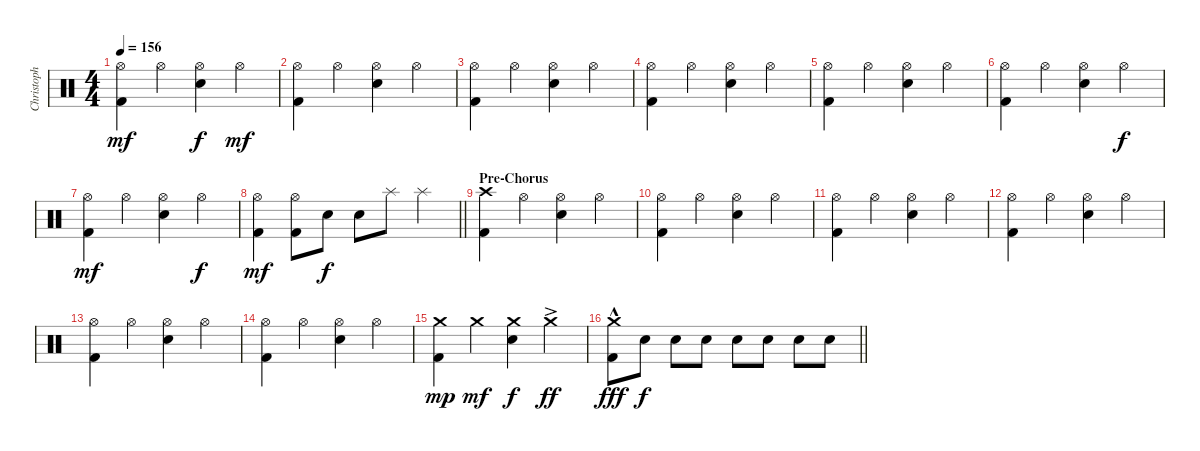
\track ("Christoph Schneider" "Christoph ") {instrument percussion}
\staff {score}
\articulation defaults
\ts (4 4)
\tempo 156
\clef neutral
\ks c
("Hi-Hat (open)" "Kick (hit) 2").4{dy mf} "Hi-Hat (open)".4 ("Hi-Hat (open)" "Snare (hit) 2").4{dy f} "Hi-Hat (open)".4{dy mf} |
("Hi-Hat (open)" "Kick (hit) 2").4 "Hi-Hat (open)".4 ("Hi-Hat (open)" "Snare (hit) 2").4 "Hi-Hat (open)".4 |
("Hi-Hat (open)" "Kick (hit) 2").4 "Hi-Hat (open)".4 ("Hi-Hat (open)" "Snare (hit) 2").4 "Hi-Hat (open)".4 |
("Hi-Hat (open)" "Kick (hit) 2").4 "Hi-Hat (open)".4 ("Hi-Hat (open)" "Snare (hit) 2").4 "Hi-Hat (open)".4 |
("Hi-Hat (open)" "Kick (hit) 2").4 "Hi-Hat (open)".4 ("Hi-Hat (open)" "Snare (hit) 2").4 "Hi-Hat (open)".4 |
("Hi-Hat (open)" "Kick (hit) 2").4 "Hi-Hat (open)".4 ("Hi-Hat (open)" "Snare (hit) 2").4 "Hi-Hat (open)".4{dy f} |
("Hi-Hat (open)" "Kick (hit) 2").4{dy mf} "Hi-Hat (open)".4 ("Hi-Hat (open)" "Snare (hit) 2").4 "Hi-Hat (open)".4{dy f} |
\barLineRight lightlight
("Hi-Hat (open)" "Kick (hit) 2").4{dy mf} ("Hi-Hat (open)" "Kick (hit) 2").8 "Snare (hit) 2".8{dy f} "Snare (hit) 2".8 "Splash (hit)".8 "Splash (hit)".4 |
\section ("" "Pre-Chorus")
("Crash high (hit)" "Kick (hit) 2").4 "Hi-Hat (open)".4 ("Hi-Hat (open)" "Snare (hit) 2").4 "Hi-Hat (open)".4 |
("Hi-Hat (open)" "Kick (hit) 2").4 "Hi-Hat (open)".4 ("Hi-Hat (open)" "Snare (hit) 2").4 "Hi-Hat (open)".4 |
("Hi-Hat (open)" "Kick (hit) 2").4 "Hi-Hat (open)".4 ("Hi-Hat (open)" "Snare (hit) 2").4 "Hi-Hat (open)".4 |
("Hi-Hat (open)" "Kick (hit) 2").4 "Hi-Hat (open)".4 ("Hi-Hat (open)" "Snare (hit) 2").4 "Hi-Hat (open)".4 |
("Hi-Hat (open)" "Kick (hit) 2").4 "Hi-Hat (open)".4 ("Hi-Hat (open)" "Snare (hit) 2").4 "Hi-Hat (open)".4 |
("Hi-Hat (open)" "Kick (hit) 2").4 "Hi-Hat (open)".4 ("Hi-Hat (open)" "Snare (hit) 2").4 "Hi-Hat (open)".4 |
("Crash medium (hit)" "Kick (hit) 2").4{dy mp} "Crash medium (hit)".4{dy mf} ("Crash medium (hit)" "Snare (hit) 2").4{dy f} "Crash medium (hit)"{ac}.4{dy ff} |
\barLineRight lightlight
("Crash medium (hit)"{hac} "Kick (hit) 2").8{dy fff} "Snare (hit) 2".8{dy f} "Snare (hit) 2".8 "Snare (hit) 2".8 "Snare (hit) 2".8 "Snare (hit) 2".8 "Snare (hit) 2".8 "Snare (hit) 2".8
